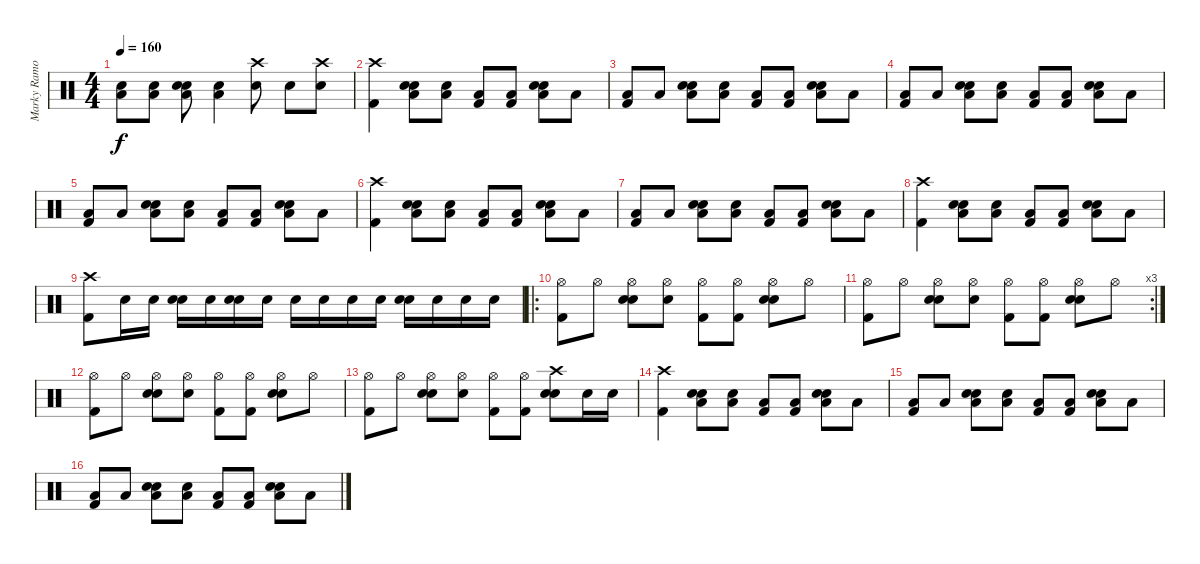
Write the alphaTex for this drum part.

\track ("Marky Ramone" "Marky Ramo") {instrument percussion}
\staff {score}
\articulation defaults
\ts (4 4)
\tempo 160
\clef neutral
\ks c
("Electric Snare (hit)" "Low Floor Tom (hit)").8{dy f} ("Electric Snare (hit)" "Low Floor Tom (hit)").8 ("Hand Clap (hit)" "Electric Snare (hit)" "Low Floor Tom (hit)").8 ("Electric Snare (hit)" "Low Floor Tom (hit)").4 ("Crash high (hit)" "Electric Snare (hit)").8 "Hand Clap (hit)".8 ("Crash high (hit)" "Electric Snare (hit)").8 |
("Kick (hit) 2" "Crash high (hit)").4 ("Hand Clap (hit)" "Electric Snare (hit)" "Low Floor Tom (hit)").8 ("Hand Clap (hit)" "Low Floor Tom (hit)").8 ("Kick (hit) 2" "Low Floor Tom (hit)").8 ("Kick (hit) 2" "Low Floor Tom (hit)").8 ("Hand Clap (hit)" "Electric Snare (hit)" "Low Floor Tom (hit)").8 "Low Floor Tom (hit)".8 |
("Kick (hit) 2" "Low Floor Tom (hit)").8 "Low Floor Tom (hit)".8 ("Hand Clap (hit)" "Electric Snare (hit)" "Low Floor Tom (hit)").8 ("Hand Clap (hit)" "Low Floor Tom (hit)").8 ("Kick (hit) 2" "Low Floor Tom (hit)").8 ("Kick (hit) 2" "Low Floor Tom (hit)").8 ("Hand Clap (hit)" "Electric Snare (hit)" "Low Floor Tom (hit)").8 "Low Floor Tom (hit)".8 |
("Kick (hit) 2" "Low Floor Tom (hit)").8 "Low Floor Tom (hit)".8 ("Hand Clap (hit)" "Electric Snare (hit)" "Low Floor Tom (hit)").8 ("Hand Clap (hit)" "Low Floor Tom (hit)").8 ("Kick (hit) 2" "Low Floor Tom (hit)").8 ("Kick (hit) 2" "Low Floor Tom (hit)").8 ("Hand Clap (hit)" "Electric Snare (hit)" "Low Floor Tom (hit)").8 "Low Floor Tom (hit)".8 |
("Kick (hit) 2" "Low Floor Tom (hit)").8 "Low Floor Tom (hit)".8 ("Hand Clap (hit)" "Electric Snare (hit)" "Low Floor Tom (hit)").8 ("Hand Clap (hit)" "Low Floor Tom (hit)").8 ("Kick (hit) 2" "Low Floor Tom (hit)").8 ("Kick (hit) 2" "Low Floor Tom (hit)").8 ("Hand Clap (hit)" "Electric Snare (hit)" "Low Floor Tom (hit)").8 "Low Floor Tom (hit)".8 |
("Kick (hit) 2" "Crash high (hit)").4 ("Hand Clap (hit)" "Electric Snare (hit)" "Low Floor Tom (hit)").8 ("Hand Clap (hit)" "Low Floor Tom (hit)").8 ("Kick (hit) 2" "Low Floor Tom (hit)").8 ("Kick (hit) 2" "Low Floor Tom (hit)").8 ("Hand Clap (hit)" "Electric Snare (hit)" "Low Floor Tom (hit)").8 "Low Floor Tom (hit)".8 |
("Kick (hit) 2" "Low Floor Tom (hit)").8 "Low Floor Tom (hit)".8 ("Hand Clap (hit)" "Electric Snare (hit)" "Low Floor Tom (hit)").8 ("Hand Clap (hit)" "Low Floor Tom (hit)").8 ("Kick (hit) 2" "Low Floor Tom (hit)").8 ("Kick (hit) 2" "Low Floor Tom (hit)").8 ("Hand Clap (hit)" "Electric Snare (hit)" "Low Floor Tom (hit)").8 "Low Floor Tom (hit)".8 |
("Kick (hit) 2" "Crash high (hit)").4 ("Hand Clap (hit)" "Electric Snare (hit)" "Low Floor Tom (hit)").8 ("Hand Clap (hit)" "Low Floor Tom (hit)").8 ("Kick (hit) 2" "Low Floor Tom (hit)").8 ("Kick (hit) 2" "Low Floor Tom (hit)").8 ("Hand Clap (hit)" "Electric Snare (hit)" "Low Floor Tom (hit)").8 "Low Floor Tom (hit)".8 |
("Kick (hit) 2" "Crash high (hit)").8 "Electric Snare (hit)".16 "Electric Snare (hit)".16 ("Hand Clap (hit)" "Electric Snare (hit)").16 "Electric Snare (hit)".16 ("Hand Clap (hit)" "Electric Snare (hit)").16 "Electric Snare (hit)".16 "Electric Snare (hit)".16 "Electric Snare (hit)".16 "Electric Snare (hit)".16 "Electric Snare (hit)".16 ("Hand Clap (hit)" "Electric Snare (hit)").16 "Electric Snare (hit)".16 "Electric Snare (hit)".16 "Electric Snare (hit)".16 |
\ro
("Kick (hit) 2" "Hi-Hat (open)").8 "Hi-Hat (open)".8 ("Hand Clap (hit)" "Electric Snare (hit)" "Hi-Hat (open)").8 ("Hand Clap (hit)" "Hi-Hat (open)").8 ("Kick (hit) 2" "Hi-Hat (open)").8 ("Kick (hit) 2" "Hi-Hat (open)").8 ("Hand Clap (hit)" "Electric Snare (hit)" "Hi-Hat (open)").8 "Hi-Hat (open)".8 |
\rc 3
("Kick (hit) 2" "Hi-Hat (open)").8 "Hi-Hat (open)".8 ("Hand Clap (hit)" "Electric Snare (hit)" "Hi-Hat (open)").8 ("Hand Clap (hit)" "Hi-Hat (open)").8 ("Kick (hit) 2" "Hi-Hat (open)").8 ("Kick (hit) 2" "Hi-Hat (open)").8 ("Hand Clap (hit)" "Electric Snare (hit)" "Hi-Hat (open)").8 "Hi-Hat (open)".8 |
("Kick (hit) 2" "Hi-Hat (open)").8 "Hi-Hat (open)".8 ("Hand Clap (hit)" "Electric Snare (hit)" "Hi-Hat (open)").8 ("Hand Clap (hit)" "Hi-Hat (open)").8 ("Kick (hit) 2" "Hi-Hat (open)").8 ("Kick (hit) 2" "Hi-Hat (open)").8 ("Hand Clap (hit)" "Electric Snare (hit)" "Hi-Hat (open)").8 "Hi-Hat (open)".8 |
("Kick (hit) 2" "Hi-Hat (open)").8 "Hi-Hat (open)".8 ("Hand Clap (hit)" "Electric Snare (hit)" "Hi-Hat (open)").8 ("Hand Clap (hit)" "Hi-Hat (open)").8 ("Kick (hit) 2" "Hi-Hat (open)").8 ("Kick (hit) 2" "Hi-Hat (open)").8 ("Hand Clap (hit)" "Electric Snare (hit)" "Crash high (hit)").8 "Electric Snare (hit)".16 "Electric Snare (hit)".16 |
("Kick (hit) 2" "Crash high (hit)").4 ("Hand Clap (hit)" "Electric Snare (hit)" "Low Floor Tom (hit)").8 ("Hand Clap (hit)" "Low Floor Tom (hit)").8 ("Kick (hit) 2" "Low Floor Tom (hit)").8 ("Kick (hit) 2" "Low Floor Tom (hit)").8 ("Hand Clap (hit)" "Electric Snare (hit)" "Low Floor Tom (hit)").8 "Low Floor Tom (hit)".8 |
("Kick (hit) 2" "Low Floor Tom (hit)").8 "Low Floor Tom (hit)".8 ("Hand Clap (hit)" "Electric Snare (hit)" "Low Floor Tom (hit)").8 ("Hand Clap (hit)" "Low Floor Tom (hit)").8 ("Kick (hit) 2" "Low Floor Tom (hit)").8 ("Kick (hit) 2" "Low Floor Tom (hit)").8 ("Hand Clap (hit)" "Electric Snare (hit)" "Low Floor Tom (hit)").8 "Low Floor Tom (hit)".8 |
("Kick (hit) 2" "Low Floor Tom (hit)").8 "Low Floor Tom (hit)".8 ("Hand Clap (hit)" "Electric Snare (hit)" "Low Floor Tom (hit)").8 ("Hand Clap (hit)" "Low Floor Tom (hit)").8 ("Kick (hit) 2" "Low Floor Tom (hit)").8 ("Kick (hit) 2" "Low Floor Tom (hit)").8 ("Hand Clap (hit)" "Electric Snare (hit)" "Low Floor Tom (hit)").8 "Low Floor Tom (hit)".8
